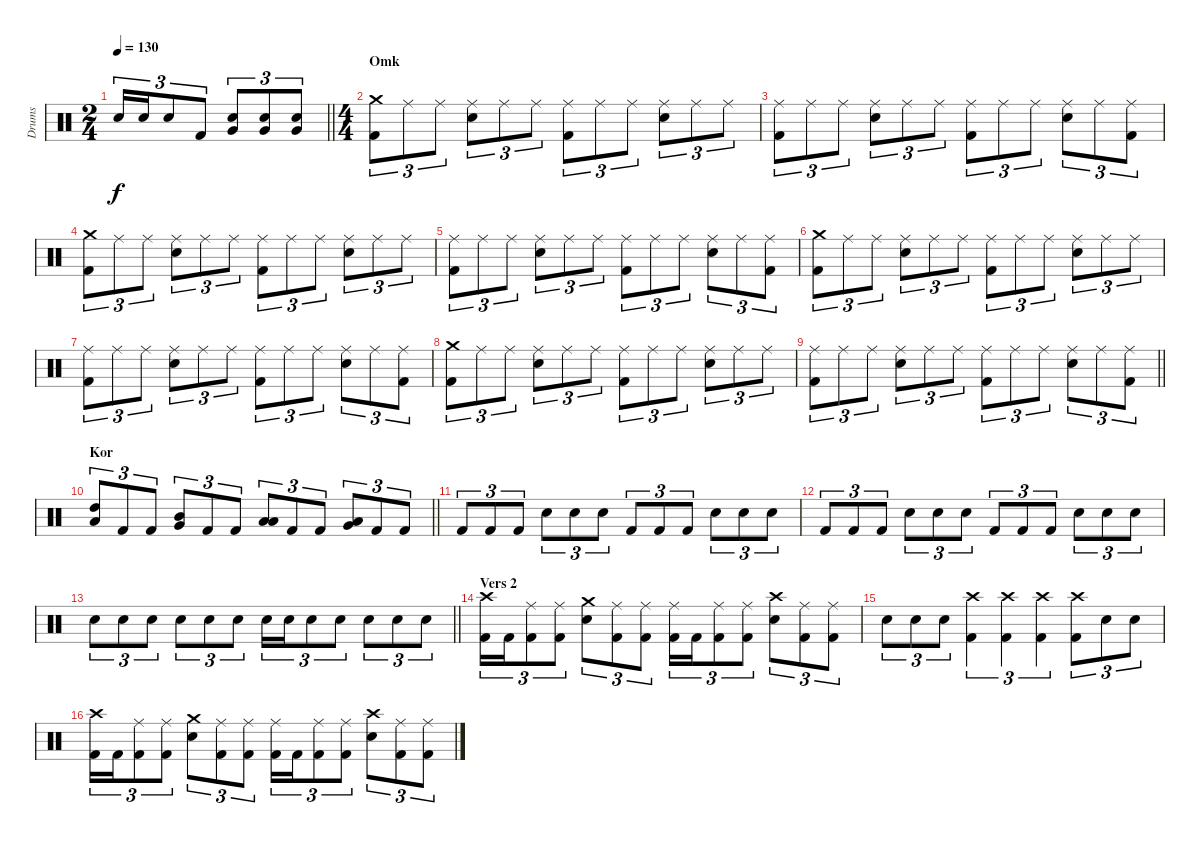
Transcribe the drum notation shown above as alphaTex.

\track ("Drums" "Drums") {instrument percussion}
\staff {score}
\articulation defaults
\ts (2 4)
\tempo 130
\clef neutral
\barLineRight lightlight
\ks c "Snare (hit) 2".16{tu (3 2) dy f} "Snare (hit) 2".16{tu (3 2)} "Snare (hit) 2".8{tu (3 2)} "Kick (hit) 2".8{tu (3 2)}
("Very Low Tom (hit)" "Snare (hit) 2").8{tu (3 2)} ("Very Low Tom (hit)" "Snare (hit) 2").8{tu (3 2)} ("Very Low Tom (hit)" "Snare (hit) 2").8{tu (3 2)} |
\ts (4 4)
\section ("" "Omk")
("Crash medium (hit)" "Kick (hit) 2").8{tu (3 2)} "Ride (middle)".8{tu (3 2)} "Ride (middle)".8{tu (3 2)} ("Ride (middle)" "Snare (hit) 2").8{tu (3 2)} "Ride (middle)".8{tu (3 2)} "Ride (middle)".8{tu (3 2)} ("Ride (middle)" "Kick (hit) 2").8{tu (3 2)} "Ride (middle)".8{tu (3 2)} "Ride (middle)".8{tu (3 2)} ("Ride (middle)" "Snare (hit) 2").8{tu (3 2)} "Ride (middle)".8{tu (3 2)} "Ride (middle)".8{tu (3 2)} |
("Ride (middle)" "Kick (hit) 2").8{tu (3 2)} "Ride (middle)".8{tu (3 2)} "Ride (middle)".8{tu (3 2)} ("Ride (middle)" "Snare (hit) 2").8{tu (3 2)} "Ride (middle)".8{tu (3 2)} "Ride (middle)".8{tu (3 2)} ("Ride (middle)" "Kick (hit) 2").8{tu (3 2)} "Ride (middle)".8{tu (3 2)} "Ride (middle)".8{tu (3 2)} ("Ride (middle)" "Snare (hit) 2").8{tu (3 2)} "Ride (middle)".8{tu (3 2)} ("Ride (middle)" "Kick (hit) 2").8{tu (3 2)} |
("Crash medium (hit)" "Kick (hit) 2").8{tu (3 2)} "Ride (middle)".8{tu (3 2)} "Ride (middle)".8{tu (3 2)} ("Ride (middle)" "Snare (hit) 2").8{tu (3 2)} "Ride (middle)".8{tu (3 2)} "Ride (middle)".8{tu (3 2)} ("Ride (middle)" "Kick (hit) 2").8{tu (3 2)} "Ride (middle)".8{tu (3 2)} "Ride (middle)".8{tu (3 2)} ("Ride (middle)" "Snare (hit) 2").8{tu (3 2)} "Ride (middle)".8{tu (3 2)} "Ride (middle)".8{tu (3 2)} |
("Ride (middle)" "Kick (hit) 2").8{tu (3 2)} "Ride (middle)".8{tu (3 2)} "Ride (middle)".8{tu (3 2)} ("Ride (middle)" "Snare (hit) 2").8{tu (3 2)} "Ride (middle)".8{tu (3 2)} "Ride (middle)".8{tu (3 2)} ("Ride (middle)" "Kick (hit) 2").8{tu (3 2)} "Ride (middle)".8{tu (3 2)} "Ride (middle)".8{tu (3 2)} ("Ride (middle)" "Snare (hit) 2").8{tu (3 2)} "Ride (middle)".8{tu (3 2)} ("Ride (middle)" "Kick (hit) 2").8{tu (3 2)} |
("Crash medium (hit)" "Kick (hit) 2").8{tu (3 2)} "Ride (middle)".8{tu (3 2)} "Ride (middle)".8{tu (3 2)} ("Ride (middle)" "Snare (hit) 2").8{tu (3 2)} "Ride (middle)".8{tu (3 2)} "Ride (middle)".8{tu (3 2)} ("Ride (middle)" "Kick (hit) 2").8{tu (3 2)} "Ride (middle)".8{tu (3 2)} "Ride (middle)".8{tu (3 2)} ("Ride (middle)" "Snare (hit) 2").8{tu (3 2)} "Ride (middle)".8{tu (3 2)} "Ride (middle)".8{tu (3 2)} |
("Ride (middle)" "Kick (hit) 2").8{tu (3 2)} "Ride (middle)".8{tu (3 2)} "Ride (middle)".8{tu (3 2)} ("Ride (middle)" "Snare (hit) 2").8{tu (3 2)} "Ride (middle)".8{tu (3 2)} "Ride (middle)".8{tu (3 2)} ("Ride (middle)" "Kick (hit) 2").8{tu (3 2)} "Ride (middle)".8{tu (3 2)} "Ride (middle)".8{tu (3 2)} ("Ride (middle)" "Snare (hit) 2").8{tu (3 2)} "Ride (middle)".8{tu (3 2)} ("Ride (middle)" "Kick (hit) 2").8{tu (3 2)} |
("Crash medium (hit)" "Kick (hit) 2").8{tu (3 2)} "Ride (middle)".8{tu (3 2)} "Ride (middle)".8{tu (3 2)} ("Ride (middle)" "Snare (hit) 2").8{tu (3 2)} "Ride (middle)".8{tu (3 2)} "Ride (middle)".8{tu (3 2)} ("Ride (middle)" "Kick (hit) 2").8{tu (3 2)} "Ride (middle)".8{tu (3 2)} "Ride (middle)".8{tu (3 2)} ("Ride (middle)" "Snare (hit) 2").8{tu (3 2)} "Ride (middle)".8{tu (3 2)} "Ride (middle)".8{tu (3 2)} |
\barLineRight lightlight
("Ride (middle)" "Kick (hit) 2").8{tu (3 2)} "Ride (middle)".8{tu (3 2)} "Ride (middle)".8{tu (3 2)} ("Ride (middle)" "Snare (hit) 2").8{tu (3 2)} "Ride (middle)".8{tu (3 2)} "Ride (middle)".8{tu (3 2)} ("Ride (middle)" "Kick (hit) 2").8{tu (3 2)} "Ride (middle)".8{tu (3 2)} "Ride (middle)".8{tu (3 2)} ("Ride (middle)" "Snare (hit) 2").8{tu (3 2)} "Ride (middle)".8{tu (3 2)} ("Ride (middle)" "Kick (hit) 2").8{tu (3 2)} |
\section ("" "Kor")
\barLineRight lightlight
("High Tom (hit)" "Low Tom (hit)").8{tu (3 2)} "Kick (hit) 2".8{tu (3 2)} "Kick (hit) 2".8{tu (3 2)} ("Mid Tom (hit)" "Very Low Tom (hit)").8{tu (3 2)} "Kick (hit) 2".8{tu (3 2)} "Kick (hit) 2".8{tu (3 2)} ("Low Tom (hit)" "Low Floor Tom (hit)").8{tu (3 2)} "Kick (hit) 2".8{tu (3 2)} "Kick (hit) 2".8{tu (3 2)} ("Low Tom (hit)" "Very Low Tom (hit)").8{tu (3 2)} "Kick (hit) 2".8{tu (3 2)} "Kick (hit) 2".8{tu (3 2)} |
"Kick (hit) 2".8{tu (3 2)} "Kick (hit) 2".8{tu (3 2)} "Kick (hit) 2".8{tu (3 2)} "Snare (hit) 2".8{tu (3 2)} "Snare (hit) 2".8{tu (3 2)} "Snare (hit) 2".8{tu (3 2)} "Kick (hit) 2".8{tu (3 2)} "Kick (hit) 2".8{tu (3 2)} "Kick (hit) 2".8{tu (3 2)} "Snare (hit) 2".8{tu (3 2)} "Snare (hit) 2".8{tu (3 2)} "Snare (hit) 2".8{tu (3 2)} |
"Kick (hit) 2".8{tu (3 2)} "Kick (hit) 2".8{tu (3 2)} "Kick (hit) 2".8{tu (3 2)} "Snare (hit) 2".8{tu (3 2)} "Snare (hit) 2".8{tu (3 2)} "Snare (hit) 2".8{tu (3 2)} "Kick (hit) 2".8{tu (3 2)} "Kick (hit) 2".8{tu (3 2)} "Kick (hit) 2".8{tu (3 2)} "Snare (hit) 2".8{tu (3 2)} "Snare (hit) 2".8{tu (3 2)} "Snare (hit) 2".8{tu (3 2)} |
\barLineRight lightlight "Snare (hit) 2".8{tu (3 2)} "Snare (hit) 2".8{tu (3 2)} "Snare (hit) 2".8{tu (3 2)} "Snare (hit) 2".8{tu (3 2)} "Snare (hit) 2".8{tu (3 2)} "Snare (hit) 2".8{tu (3 2)} "Snare (hit) 2".16{tu (3 2)} "Snare (hit) 2".16{tu (3 2)} "Snare (hit) 2".8{tu (3 2)} "Snare (hit) 2".8{tu (3 2)} "Snare (hit) 2".8{tu (3 2)} "Snare (hit) 2".8{tu (3 2)} "Snare (hit) 2".8{tu (3 2)}
|
\section ("" "Vers 2")
("Crash high (hit)" "Kick (hit) 2").16{tu (3 2)} "Kick (hit) 2".16{tu (3 2)} ("Ride (middle)" "Kick (hit) 2").8{tu (3 2)} ("Ride (middle)" "Kick (hit) 2").8{tu (3 2)} ("Crash medium (hit)" "Snare (hit) 2").8{tu (3 2)} ("Ride (middle)" "Kick (hit) 2").8{tu (3 2)} ("Ride (middle)" "Kick (hit) 2").8{tu (3 2)} ("Ride (middle)" "Kick (hit) 2").16{tu (3 2)} "Kick (hit) 2".16{tu (3 2)} ("Ride (middle)" "Kick (hit) 2").8{tu (3 2)} ("Ride (middle)" "Kick (hit) 2").8{tu (3 2)} ("Crash high (hit)" "Snare (hit) 2").8{tu (3 2)} ("Ride (middle)" "Kick (hit) 2").8{tu (3 2)} ("Ride (middle)" "Kick (hit) 2").8{tu (3 2)} |
"Snare (hit) 2".8{tu (3 2)} "Snare (hit) 2".8{tu (3 2)} "Snare (hit) 2".8{tu (3 2)} ("Crash high (hit)" "Kick (hit) 2").4{tu (3 2)} ("Crash high (hit)" "Kick (hit) 2").4{tu (3 2)} ("Crash high (hit)" "Kick (hit) 2").4{tu (3 2)} ("Crash high (hit)" "Kick (hit) 2").8{tu (3 2)} "Snare (hit) 2".8{tu (3 2)} "Snare (hit) 2".8{tu (3 2)} |
("Crash high (hit)" "Kick (hit) 2").16{tu (3 2)} "Kick (hit) 2".16{tu (3 2)} ("Ride (middle)" "Kick (hit) 2").8{tu (3 2)} ("Ride (middle)" "Kick (hit) 2").8{tu (3 2)} ("Crash medium (hit)" "Snare (hit) 2").8{tu (3 2)} ("Ride (middle)" "Kick (hit) 2").8{tu (3 2)} ("Ride (middle)" "Kick (hit) 2").8{tu (3 2)} ("Ride (middle)" "Kick (hit) 2").16{tu (3 2)} "Kick (hit) 2".16{tu (3 2)} ("Ride (middle)" "Kick (hit) 2").8{tu (3 2)} ("Ride (middle)" "Kick (hit) 2").8{tu (3 2)} ("Crash high (hit)" "Snare (hit) 2").8{tu (3 2)} ("Ride (middle)" "Kick (hit) 2").8{tu (3 2)} ("Ride (middle)" "Kick (hit) 2").8{tu (3 2)}
